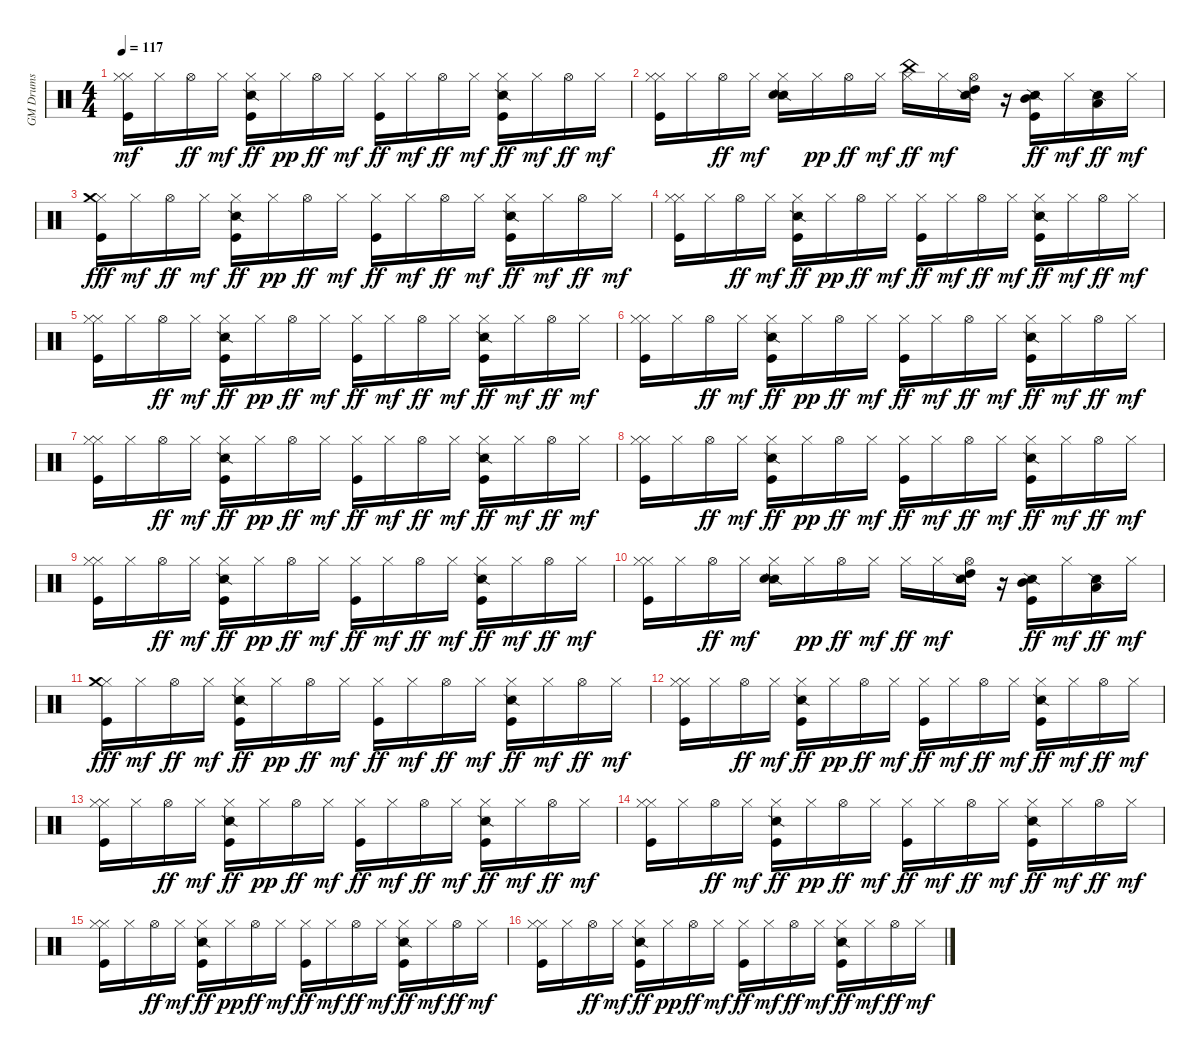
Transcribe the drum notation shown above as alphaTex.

\track ("GM Drums" "GM Drums") {instrument percussion}
\staff {score}
\articulation defaults
\ts (4 4)
\tempo 117
\clef neutral
\ks c
("Hi-Hat (closed)" "Kick (hit)" "Hi-Hat (closed)").16{dy mf} "Hi-Hat (closed)".16 "Hi-Hat (open)".16{dy ff} "Hi-Hat (closed)".16{dy mf} ("Kick (hit)" "Hi-Hat (closed)" "Snare (side stick) 2").16{dy ff} "Hi-Hat (closed)".16{dy pp} "Hi-Hat (open)".16{dy ff} "Hi-Hat (closed)".16{dy mf} ("Kick (hit)" "Hi-Hat (closed)").16{dy ff} "Hi-Hat (closed)".16{dy mf} "Hi-Hat (open)".16{dy ff} "Hi-Hat (closed)".16{dy mf} ("Kick (hit)" "Hi-Hat (closed)" "Snare (side stick) 2").16{dy ff} "Hi-Hat (closed)".16{dy mf} "Hi-Hat (open)".16{dy ff} "Hi-Hat (closed)".16{dy mf} |
("Hi-Hat (closed)" "Kick (hit)" "Hi-Hat (closed)").16 "Hi-Hat (closed)".16 "Hi-Hat (open)".16{dy ff} "Hi-Hat (closed)".16{dy mf} ("Hi-Hat (closed)" "Snare (side stick) 2" "Electric Snare (hit)").16 "Hi-Hat (closed)".16{dy pp} "Hi-Hat (open)".16{dy ff} "Hi-Hat (closed)".16{dy mf} ("Hi-Hat (closed)" "China (hit)").16{dy ff} "Hi-Hat (closed)".16{dy mf} ("Snare (side stick) 2" "Hi-Hat (open)" "High Tom (hit)").16 r.16 ("Kick (hit)" "Snare (side stick) 2" "Mid Tom (hit)").16{dy ff} "Hi-Hat (closed)".16{dy mf} ("Snare (side stick) 2" "Low Tom (hit)").16{dy ff} "Hi-Hat (closed)".16{dy mf} |
("Kick (hit)" "Hi-Hat (closed)" "Crash medium (hit)").16{dy fff} "Hi-Hat (closed)".16{dy mf} "Hi-Hat (open)".16{dy ff} "Hi-Hat (closed)".16{dy mf} ("Kick (hit)" "Hi-Hat (closed)" "Snare (side stick) 2").16{dy ff} "Hi-Hat (closed)".16{dy pp} "Hi-Hat (open)".16{dy ff} "Hi-Hat (closed)".16{dy mf} ("Kick (hit)" "Hi-Hat (closed)").16{dy ff} "Hi-Hat (closed)".16{dy mf} "Hi-Hat (open)".16{dy ff} "Hi-Hat (closed)".16{dy mf} ("Kick (hit)" "Hi-Hat (closed)" "Snare (side stick) 2").16{dy ff} "Hi-Hat (closed)".16{dy mf} "Hi-Hat (open)".16{dy ff} "Hi-Hat (closed)".16{dy mf} |
("Hi-Hat (closed)" "Kick (hit)" "Hi-Hat (closed)").16 "Hi-Hat (closed)".16 "Hi-Hat (open)".16{dy ff} "Hi-Hat (closed)".16{dy mf} ("Kick (hit)" "Hi-Hat (closed)" "Snare (side stick) 2").16{dy ff} "Hi-Hat (closed)".16{dy pp} "Hi-Hat (open)".16{dy ff} "Hi-Hat (closed)".16{dy mf} ("Kick (hit)" "Hi-Hat (closed)").16{dy ff} "Hi-Hat (closed)".16{dy mf} "Hi-Hat (open)".16{dy ff} "Hi-Hat (closed)".16{dy mf} ("Kick (hit)" "Hi-Hat (closed)" "Snare (side stick) 2").16{dy ff} "Hi-Hat (closed)".16{dy mf} "Hi-Hat (open)".16{dy ff} "Hi-Hat (closed)".16{dy mf} |
("Hi-Hat (closed)" "Kick (hit)" "Hi-Hat (closed)").16 "Hi-Hat (closed)".16 "Hi-Hat (open)".16{dy ff} "Hi-Hat (closed)".16{dy mf} ("Kick (hit)" "Hi-Hat (closed)" "Snare (side stick) 2").16{dy ff} "Hi-Hat (closed)".16{dy pp} "Hi-Hat (open)".16{dy ff} "Hi-Hat (closed)".16{dy mf} ("Kick (hit)" "Hi-Hat (closed)").16{dy ff} "Hi-Hat (closed)".16{dy mf} "Hi-Hat (open)".16{dy ff} "Hi-Hat (closed)".16{dy mf} ("Kick (hit)" "Hi-Hat (closed)" "Snare (side stick) 2").16{dy ff} "Hi-Hat (closed)".16{dy mf} "Hi-Hat (open)".16{dy ff} "Hi-Hat (closed)".16{dy mf} |
("Hi-Hat (closed)" "Kick (hit)" "Hi-Hat (closed)").16 "Hi-Hat (closed)".16 "Hi-Hat (open)".16{dy ff} "Hi-Hat (closed)".16{dy mf} ("Kick (hit)" "Hi-Hat (closed)" "Snare (side stick) 2").16{dy ff} "Hi-Hat (closed)".16{dy pp} "Hi-Hat (open)".16{dy ff} "Hi-Hat (closed)".16{dy mf} ("Kick (hit)" "Hi-Hat (closed)").16{dy ff} "Hi-Hat (closed)".16{dy mf} "Hi-Hat (open)".16{dy ff} "Hi-Hat (closed)".16{dy mf} ("Kick (hit)" "Hi-Hat (closed)" "Snare (side stick) 2").16{dy ff} "Hi-Hat (closed)".16{dy mf} "Hi-Hat (open)".16{dy ff} "Hi-Hat (closed)".16{dy mf} |
("Hi-Hat (closed)" "Kick (hit)" "Hi-Hat (closed)").16 "Hi-Hat (closed)".16 "Hi-Hat (open)".16{dy ff} "Hi-Hat (closed)".16{dy mf} ("Kick (hit)" "Hi-Hat (closed)" "Snare (side stick) 2").16{dy ff} "Hi-Hat (closed)".16{dy pp} "Hi-Hat (open)".16{dy ff} "Hi-Hat (closed)".16{dy mf} ("Kick (hit)" "Hi-Hat (closed)").16{dy ff} "Hi-Hat (closed)".16{dy mf} "Hi-Hat (open)".16{dy ff} "Hi-Hat (closed)".16{dy mf} ("Kick (hit)" "Hi-Hat (closed)" "Snare (side stick) 2").16{dy ff} "Hi-Hat (closed)".16{dy mf} "Hi-Hat (open)".16{dy ff} "Hi-Hat (closed)".16{dy mf} |
("Hi-Hat (closed)" "Kick (hit)" "Hi-Hat (closed)").16 "Hi-Hat (closed)".16 "Hi-Hat (open)".16{dy ff} "Hi-Hat (closed)".16{dy mf} ("Kick (hit)" "Hi-Hat (closed)" "Snare (side stick) 2").16{dy ff} "Hi-Hat (closed)".16{dy pp} "Hi-Hat (open)".16{dy ff} "Hi-Hat (closed)".16{dy mf} ("Kick (hit)" "Hi-Hat (closed)").16{dy ff} "Hi-Hat (closed)".16{dy mf} "Hi-Hat (open)".16{dy ff} "Hi-Hat (closed)".16{dy mf} ("Kick (hit)" "Hi-Hat (closed)" "Snare (side stick) 2").16{dy ff} "Hi-Hat (closed)".16{dy mf} "Hi-Hat (open)".16{dy ff} "Hi-Hat (closed)".16{dy mf} |
("Hi-Hat (closed)" "Kick (hit)" "Hi-Hat (closed)").16 "Hi-Hat (closed)".16 "Hi-Hat (open)".16{dy ff} "Hi-Hat (closed)".16{dy mf} ("Kick (hit)" "Hi-Hat (closed)" "Snare (side stick) 2").16{dy ff} "Hi-Hat (closed)".16{dy pp} "Hi-Hat (open)".16{dy ff} "Hi-Hat (closed)".16{dy mf} ("Kick (hit)" "Hi-Hat (closed)").16{dy ff} "Hi-Hat (closed)".16{dy mf} "Hi-Hat (open)".16{dy ff} "Hi-Hat (closed)".16{dy mf} ("Kick (hit)" "Hi-Hat (closed)" "Snare (side stick) 2").16{dy ff} "Hi-Hat (closed)".16{dy mf} "Hi-Hat (open)".16{dy ff} "Hi-Hat (closed)".16{dy mf} |
("Hi-Hat (closed)" "Kick (hit)" "Hi-Hat (closed)").16 "Hi-Hat (closed)".16 "Hi-Hat (open)".16{dy ff} "Hi-Hat (closed)".16{dy mf} ("Hi-Hat (closed)" "Snare (side stick) 2" "Electric Snare (hit)").16 "Hi-Hat (closed)".16{dy pp} "Hi-Hat (open)".16{dy ff} "Hi-Hat (closed)".16{dy mf} "Hi-Hat (closed)".16{dy ff} "Hi-Hat (closed)".16{dy mf} ("Snare (side stick) 2" "Hi-Hat (open)" "High Tom (hit)").16 r.16 ("Kick (hit)" "Snare (side stick) 2" "Mid Tom (hit)").16{dy ff} "Hi-Hat (closed)".16{dy mf} ("Snare (side stick) 2" "Low Tom (hit)").16{dy ff} "Hi-Hat (closed)".16{dy mf} |
("Kick (hit)" "Hi-Hat (closed)" "Crash medium (hit)").16{dy fff} "Hi-Hat (closed)".16{dy mf} "Hi-Hat (open)".16{dy ff} "Hi-Hat (closed)".16{dy mf} ("Kick (hit)" "Hi-Hat (closed)" "Snare (side stick) 2").16{dy ff} "Hi-Hat (closed)".16{dy pp} "Hi-Hat (open)".16{dy ff} "Hi-Hat (closed)".16{dy mf} ("Kick (hit)" "Hi-Hat (closed)").16{dy ff} "Hi-Hat (closed)".16{dy mf} "Hi-Hat (open)".16{dy ff} "Hi-Hat (closed)".16{dy mf} ("Kick (hit)" "Hi-Hat (closed)" "Snare (side stick) 2").16{dy ff} "Hi-Hat (closed)".16{dy mf} "Hi-Hat (open)".16{dy ff} "Hi-Hat (closed)".16{dy mf} |
("Hi-Hat (closed)" "Kick (hit)" "Hi-Hat (closed)").16 "Hi-Hat (closed)".16 "Hi-Hat (open)".16{dy ff} "Hi-Hat (closed)".16{dy mf} ("Kick (hit)" "Hi-Hat (closed)" "Snare (side stick) 2").16{dy ff} "Hi-Hat (closed)".16{dy pp} "Hi-Hat (open)".16{dy ff} "Hi-Hat (closed)".16{dy mf} ("Kick (hit)" "Hi-Hat (closed)").16{dy ff} "Hi-Hat (closed)".16{dy mf} "Hi-Hat (open)".16{dy ff} "Hi-Hat (closed)".16{dy mf} ("Kick (hit)" "Hi-Hat (closed)" "Snare (side stick) 2").16{dy ff} "Hi-Hat (closed)".16{dy mf} "Hi-Hat (open)".16{dy ff} "Hi-Hat (closed)".16{dy mf} |
("Hi-Hat (closed)" "Kick (hit)" "Hi-Hat (closed)").16 "Hi-Hat (closed)".16 "Hi-Hat (open)".16{dy ff} "Hi-Hat (closed)".16{dy mf} ("Kick (hit)" "Hi-Hat (closed)" "Snare (side stick) 2").16{dy ff} "Hi-Hat (closed)".16{dy pp} "Hi-Hat (open)".16{dy ff} "Hi-Hat (closed)".16{dy mf} ("Kick (hit)" "Hi-Hat (closed)").16{dy ff} "Hi-Hat (closed)".16{dy mf} "Hi-Hat (open)".16{dy ff} "Hi-Hat (closed)".16{dy mf} ("Kick (hit)" "Hi-Hat (closed)" "Snare (side stick) 2").16{dy ff} "Hi-Hat (closed)".16{dy mf} "Hi-Hat (open)".16{dy ff} "Hi-Hat (closed)".16{dy mf} |
("Hi-Hat (closed)" "Kick (hit)" "Hi-Hat (closed)").16 "Hi-Hat (closed)".16 "Hi-Hat (open)".16{dy ff} "Hi-Hat (closed)".16{dy mf} ("Kick (hit)" "Hi-Hat (closed)" "Snare (side stick) 2").16{dy ff} "Hi-Hat (closed)".16{dy pp} "Hi-Hat (open)".16{dy ff} "Hi-Hat (closed)".16{dy mf} ("Kick (hit)" "Hi-Hat (closed)").16{dy ff} "Hi-Hat (closed)".16{dy mf} "Hi-Hat (open)".16{dy ff} "Hi-Hat (closed)".16{dy mf} ("Kick (hit)" "Hi-Hat (closed)" "Snare (side stick) 2").16{dy ff} "Hi-Hat (closed)".16{dy mf} "Hi-Hat (open)".16{dy ff} "Hi-Hat (closed)".16{dy mf} |
("Hi-Hat (closed)" "Kick (hit)" "Hi-Hat (closed)").16 "Hi-Hat (closed)".16 "Hi-Hat (open)".16{dy ff} "Hi-Hat (closed)".16{dy mf} ("Kick (hit)" "Hi-Hat (closed)" "Snare (side stick) 2").16{dy ff} "Hi-Hat (closed)".16{dy pp} "Hi-Hat (open)".16{dy ff} "Hi-Hat (closed)".16{dy mf} ("Kick (hit)" "Hi-Hat (closed)").16{dy ff} "Hi-Hat (closed)".16{dy mf} "Hi-Hat (open)".16{dy ff} "Hi-Hat (closed)".16{dy mf} ("Kick (hit)" "Hi-Hat (closed)" "Snare (side stick) 2").16{dy ff} "Hi-Hat (closed)".16{dy mf} "Hi-Hat (open)".16{dy ff} "Hi-Hat (closed)".16{dy mf} |
("Hi-Hat (closed)" "Kick (hit)" "Hi-Hat (closed)").16 "Hi-Hat (closed)".16 "Hi-Hat (open)".16{dy ff} "Hi-Hat (closed)".16{dy mf} ("Kick (hit)" "Hi-Hat (closed)" "Snare (side stick) 2").16{dy ff} "Hi-Hat (closed)".16{dy pp} "Hi-Hat (open)".16{dy ff} "Hi-Hat (closed)".16{dy mf} ("Kick (hit)" "Hi-Hat (closed)").16{dy ff} "Hi-Hat (closed)".16{dy mf} "Hi-Hat (open)".16{dy ff} "Hi-Hat (closed)".16{dy mf} ("Kick (hit)" "Hi-Hat (closed)" "Snare (side stick) 2").16{dy ff} "Hi-Hat (closed)".16{dy mf} "Hi-Hat (open)".16{dy ff} "Hi-Hat (closed)".16{dy mf}
